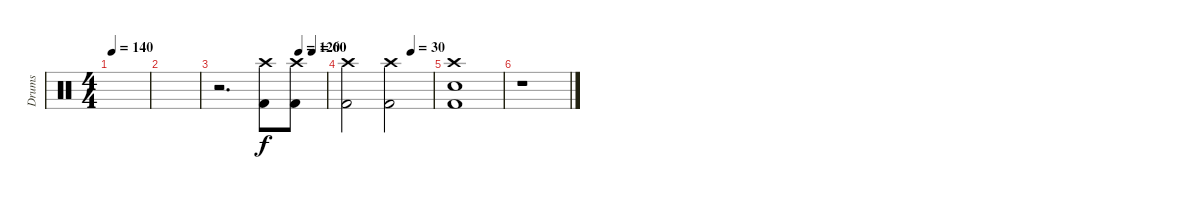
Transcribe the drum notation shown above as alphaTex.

\track ("Drums" "Drums") {instrument percussion}
\staff {score}
\articulation defaults
\ts (4 4)
\tempo 140
\clef neutral
\ks c
|
|
\tempo (120 0.75)
\tempo (60 0.875)
r.2{d} ("Crash high (hit)" "Kick (hit) 2").8 ("Crash high (hit)" "Kick (hit) 2").8 |
\tempo (30 0.75)
("Crash high (hit)" "Kick (hit) 2").2 ("Crash high (hit)" "Kick (hit) 2").2 |
("Crash high (hit)" "Snare (hit) 2" "Kick (hit) 2").1 |
r.1
